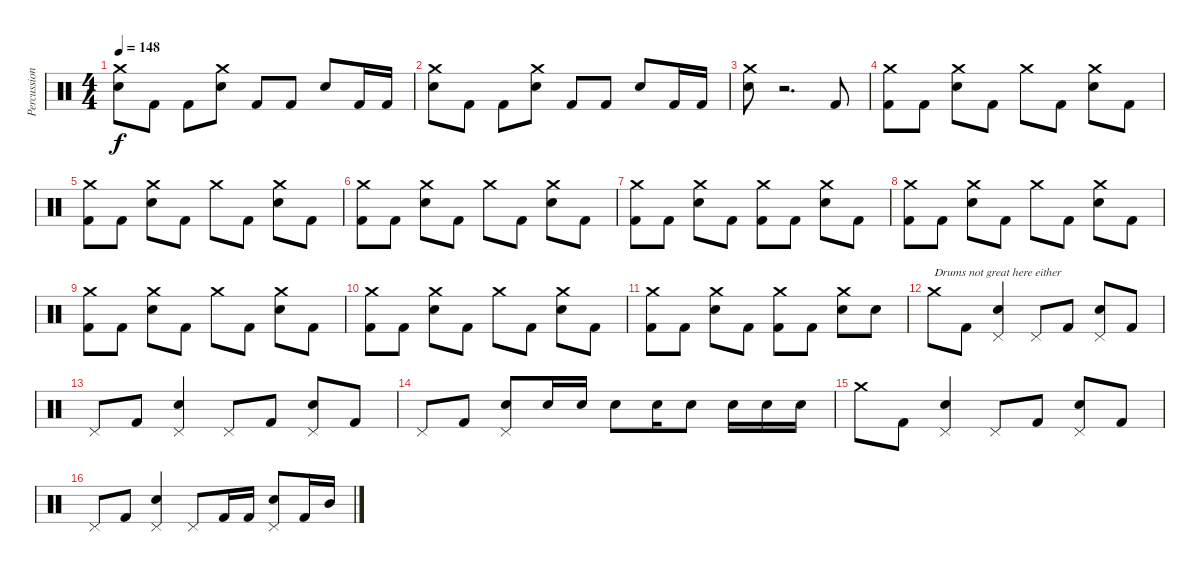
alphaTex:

\track ("Percussion - Dennis Wolfe" "Percussion") {instrument percussion}
\staff {score}
\articulation defaults
\ts (4 4)
\tempo 148
\clef neutral
\ks c
("Crash medium (hit)" "Snare (hit) 2").8{dy f} "Kick (hit) 2".8 "Kick (hit) 2".8 ("Crash medium (hit)" "Snare (hit) 2").8 "Kick (hit) 2".8 "Kick (hit) 2".8 "Snare (hit) 2".8 "Kick (hit) 2".16 "Kick (hit) 2".16 |
("Crash medium (hit)" "Snare (hit) 2").8 "Kick (hit) 2".8 "Kick (hit) 2".8 ("Crash medium (hit)" "Snare (hit) 2").8 "Kick (hit) 2".8 "Kick (hit) 2".8 "Snare (hit) 2".8 "Kick (hit) 2".16 "Kick (hit) 2".16 |
("Crash medium (hit)" "Snare (hit) 2").8 r.2{d} "Kick (hit) 2".8 |
("Crash medium (hit)" "Kick (hit) 2").8 "Kick (hit) 2".8 ("Crash medium (hit)" "Snare (hit) 2").8 "Kick (hit) 2".8 "Crash medium (hit)".8 "Kick (hit) 2".8 ("Crash medium (hit)" "Snare (hit) 2").8 "Kick (hit) 2".8 |
("Crash medium (hit)" "Kick (hit) 2").8 "Kick (hit) 2".8 ("Crash medium (hit)" "Snare (hit) 2").8 "Kick (hit) 2".8 "Crash medium (hit)".8 "Kick (hit) 2".8 ("Crash medium (hit)" "Snare (hit) 2").8 "Kick (hit) 2".8 |
("Crash medium (hit)" "Kick (hit) 2").8 "Kick (hit) 2".8 ("Crash medium (hit)" "Snare (hit) 2").8 "Kick (hit) 2".8 "Crash medium (hit)".8 "Kick (hit) 2".8 ("Crash medium (hit)" "Snare (hit) 2").8 "Kick (hit) 2".8 |
("Crash medium (hit)" "Kick (hit) 2").8 "Kick (hit) 2".8 ("Crash medium (hit)" "Snare (hit) 2").8 "Kick (hit) 2".8 ("Crash medium (hit)" "Kick (hit) 2").8 "Kick (hit) 2".8 ("Crash medium (hit)" "Snare (hit) 2").8 "Kick (hit) 2".8 |
("Crash medium (hit)" "Kick (hit) 2").8 "Kick (hit) 2".8 ("Crash medium (hit)" "Snare (hit) 2").8 "Kick (hit) 2".8 "Crash medium (hit)".8 "Kick (hit) 2".8 ("Crash medium (hit)" "Snare (hit) 2").8 "Kick (hit) 2".8 |
("Crash medium (hit)" "Kick (hit) 2").8 "Kick (hit) 2".8 ("Crash medium (hit)" "Snare (hit) 2").8 "Kick (hit) 2".8 "Crash medium (hit)".8 "Kick (hit) 2".8 ("Crash medium (hit)" "Snare (hit) 2").8 "Kick (hit) 2".8 |
("Crash medium (hit)" "Kick (hit) 2").8 "Kick (hit) 2".8 ("Crash medium (hit)" "Snare (hit) 2").8 "Kick (hit) 2".8 "Crash medium (hit)".8 "Kick (hit) 2".8 ("Crash medium (hit)" "Snare (hit) 2").8 "Kick (hit) 2".8 |
("Crash medium (hit)" "Kick (hit) 2").8 "Kick (hit) 2".8 ("Crash medium (hit)" "Snare (hit) 2").8 "Kick (hit) 2".8 ("Crash medium (hit)" "Kick (hit) 2").8 "Kick (hit) 2".8 ("Crash medium (hit)" "Snare (hit) 2").8 "Snare (hit) 2".8 |
"Crash medium (hit)".8{txt "Drums not great here either"} "Kick (hit) 2".8 ("Pedal Hi-Hat (hit)" "Snare (hit) 2").4 "Pedal Hi-Hat (hit)".8 "Kick (hit) 2".8 ("Pedal Hi-Hat (hit)" "Snare (hit) 2").8 "Kick (hit) 2".8 |
"Pedal Hi-Hat (hit)".8 "Kick (hit) 2".8 ("Pedal Hi-Hat (hit)" "Snare (hit) 2").4 "Pedal Hi-Hat (hit)".8 "Kick (hit) 2".8 ("Pedal Hi-Hat (hit)" "Snare (hit) 2").8 "Kick (hit) 2".8 |
"Pedal Hi-Hat (hit)".8 "Kick (hit) 2".8 ("Pedal Hi-Hat (hit)" "Snare (hit) 2").8 "Snare (hit) 2".16 "Snare (hit) 2".16 "Snare (hit) 2".8 "Snare (hit) 2".16 "Snare (hit) 2".8 "Snare (hit) 2".16 "Snare (hit) 2".16 "Snare (hit) 2".16 |
"Crash medium (hit)".8 "Kick (hit) 2".8 ("Pedal Hi-Hat (hit)" "Snare (hit) 2").4 "Pedal Hi-Hat (hit)".8 "Kick (hit) 2".8 ("Pedal Hi-Hat (hit)" "Snare (hit) 2").8 "Kick (hit) 2".8 |
"Pedal Hi-Hat (hit)".8 "Kick (hit) 2".8 ("Pedal Hi-Hat (hit)" "Snare (hit) 2").4 "Pedal Hi-Hat (hit)".8 "Kick (hit) 2".16 "Kick (hit) 2".16 ("Pedal Hi-Hat (hit)" "Snare (hit) 2").8 "Kick (hit) 2".16 "Mid Tom (hit)".16
